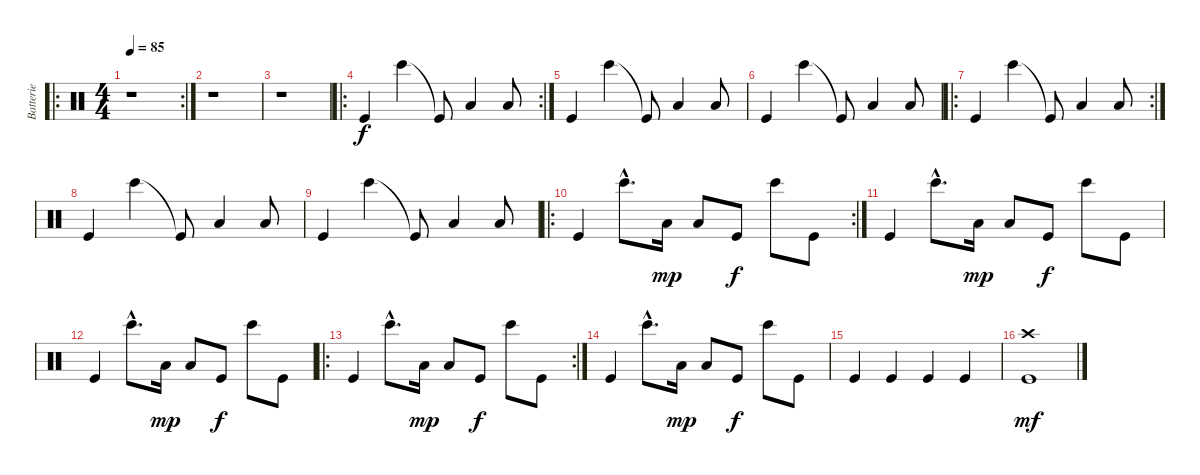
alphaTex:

\track ("Batterie" "Batterie") {instrument percussion}
\staff {score}
\articulation defaults
\ro
\rc 2
\ts (4 4)
\tempo 85
\clef neutral
\ks c
r.1{dy f} |
r.1 |
r.1 |
\ro
\rc 2 "Kick (hit)".4 "Bongo High (hit)".4 "Kick (hit)"{t}.8 "Low Tom (hit)".4 "Low Tom (hit)".8
|
"Kick (hit)".4 "Bongo High (hit)".4 "Kick (hit)"{t}.8 "Low Tom (hit)".4 "Low Tom (hit)".8 |
"Kick (hit)".4 "Bongo High (hit)".4 "Kick (hit)"{t}.8 "Low Tom (hit)".4 "Low Tom (hit)".8 |
\ro
\rc 2 "Kick (hit)".4 "Bongo High (hit)".4 "Kick (hit)"{t}.8 "Low Tom (hit)".4 "Low Tom (hit)".8
|
"Kick (hit)".4 "Bongo High (hit)".4 "Kick (hit)"{t}.8 "Low Tom (hit)".4 "Low Tom (hit)".8 |
"Kick (hit)".4 "Bongo High (hit)".4 "Kick (hit)"{t}.8 "Low Tom (hit)".4 "Low Tom (hit)".8 |
\ro
\rc 2 "Kick (hit)".4 "Bongo High (hit)"{hac}.8{d} "Low Tom (hit)".16{dy mp} "Low Tom (hit)".8 "Kick (hit)".8{dy f} "Bongo High (hit)".8 "Kick (hit)".8
|
"Kick (hit)".4 "Bongo High (hit)"{hac}.8{d} "Low Tom (hit)".16{dy mp} "Low Tom (hit)".8 "Kick (hit)".8{dy f} "Bongo High (hit)".8 "Kick (hit)".8 |
"Kick (hit)".4 "Bongo High (hit)"{hac}.8{d} "Low Tom (hit)".16{dy mp} "Low Tom (hit)".8 "Kick (hit)".8{dy f} "Bongo High (hit)".8 "Kick (hit)".8 |
\ro
\rc 2 "Kick (hit)".4 "Bongo High (hit)"{hac}.8{d} "Low Tom (hit)".16{dy mp} "Low Tom (hit)".8 "Kick (hit)".8{dy f} "Bongo High (hit)".8 "Kick (hit)".8
|
"Kick (hit)".4 "Bongo High (hit)"{hac}.8{d} "Low Tom (hit)".16{dy mp} "Low Tom (hit)".8 "Kick (hit)".8{dy f} "Bongo High (hit)".8 "Kick (hit)".8 |
"Kick (hit)".4 "Kick (hit)".4 "Kick (hit)".4 "Kick (hit)".4 |
("Crash high (hit)" "Kick (hit)").1{dy mf}
